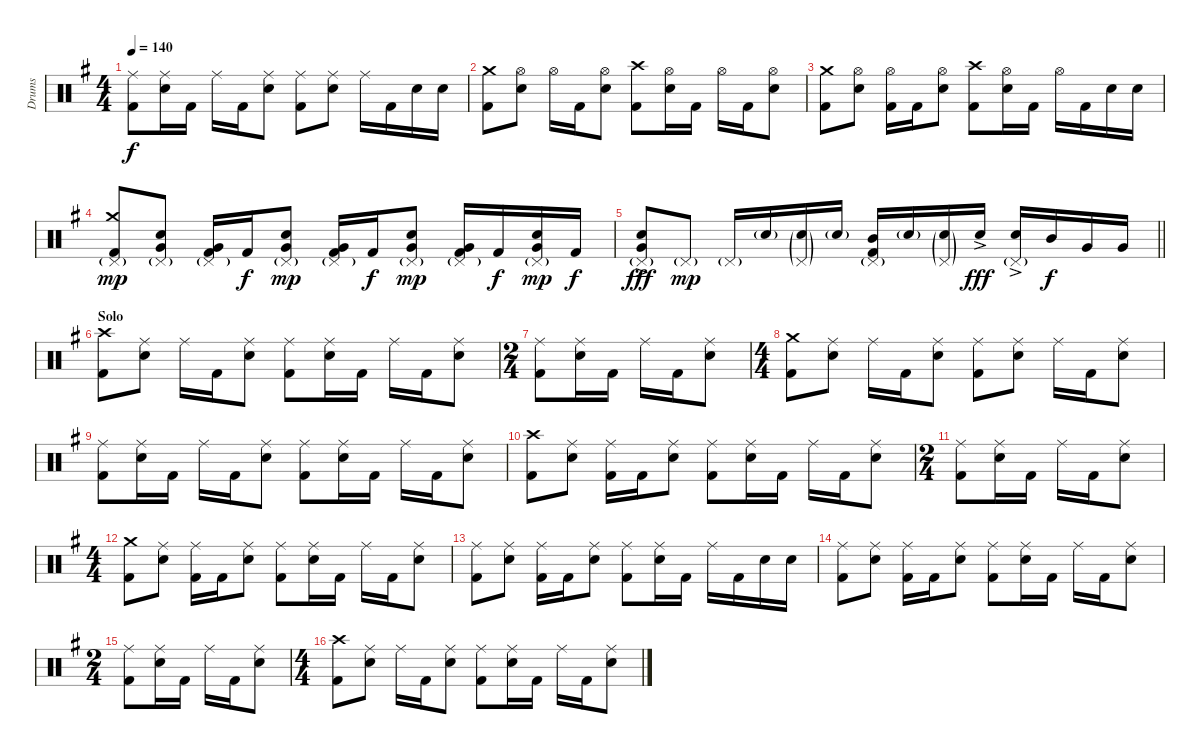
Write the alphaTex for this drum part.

\track ("Drums" "Drums") {instrument percussion}
\staff {score}
\articulation defaults
\ts (4 4)
\tempo 140
\clef neutral
\ks g
("Ride (middle)" "Kick (hit) 2").8{dy f} ("Ride (middle)" "Electric Snare (hit)").16 "Kick (hit) 2".16 "Ride (middle)".16 "Kick (hit) 2".16 ("Ride (middle)" "Electric Snare (hit)").8 ("Ride (middle)" "Kick (hit) 2").8 ("Ride (middle)" "Electric Snare (hit)").8 "Ride (middle)".16 "Kick (hit) 2".16 "Electric Snare (hit)".16 "Electric Snare (hit)".16 |
("Crash medium (hit)" "Kick (hit) 2").8 ("Hi-Hat (open)" "Electric Snare (hit)").8 "Hi-Hat (open)".16 "Kick (hit) 2".16 ("Hi-Hat (open)" "Electric Snare (hit)").8 ("Crash high (hit)" "Kick (hit) 2").8 ("Hi-Hat (open)" "Electric Snare (hit)").16 "Kick (hit) 2".16 "Hi-Hat (open)".16 "Kick (hit) 2".16 ("Hi-Hat (open)" "Electric Snare (hit)").8 |
("Crash medium (hit)" "Kick (hit) 2").8 ("Hi-Hat (open)" "Electric Snare (hit)").8 ("Hi-Hat (open)" "Kick (hit) 2").16 "Kick (hit) 2".16 ("Hi-Hat (open)" "Electric Snare (hit)").8 ("Crash high (hit)" "Kick (hit) 2").8 ("Hi-Hat (open)" "Electric Snare (hit)").16 "Kick (hit) 2".16 "Hi-Hat (open)".16 "Kick (hit) 2".16 "Electric Snare (hit)".16 "Electric Snare (hit)".16 |
("Crash medium (hit)" "Pedal Hi-Hat (hit)"{g} "Kick (hit) 2").8{dy mp} ("Pedal Hi-Hat (hit)"{g} "Electric Snare (hit)" "Very Low Tom (hit)").8 ("Pedal Hi-Hat (hit)"{g} "Very Low Tom (hit)" "Kick (hit) 2").16 "Kick (hit) 2".16{dy f} ("Pedal Hi-Hat (hit)"{g} "Electric Snare (hit)" "Very Low Tom (hit)").8{dy mp} ("Pedal Hi-Hat (hit)"{g} "Very Low Tom (hit)" "Kick (hit) 2").16 "Kick (hit) 2".16{dy f} ("Pedal Hi-Hat (hit)"{g} "Electric Snare (hit)" "Very Low Tom (hit)").8{dy mp} ("Pedal Hi-Hat (hit)"{g} "Very Low Tom (hit)" "Kick (hit) 2").16 "Kick (hit) 2".16{dy f} ("Pedal Hi-Hat (hit)"{g} "Electric Snare (hit)" "Very Low Tom (hit)").16{dy mp} "Kick (hit) 2".16{dy f} |
\barLineRight lightlight
("Pedal Hi-Hat (hit)"{g} "Electric Snare (hit)"{ac} "Very Low Tom (hit)").8{dy fff} "Pedal Hi-Hat (hit)"{g}.8{dy mp} "Pedal Hi-Hat (hit)"{g}.16 "Electric Snare (hit)"{g}.16 ("Pedal Hi-Hat (hit)"{g} "Electric Snare (hit)"{g}).16 "Electric Snare (hit)"{g}.16 ("Pedal Hi-Hat (hit)"{g} "Mid Tom (hit)" "Kick (hit) 2").16 "Electric Snare (hit)"{g}.16 ("Pedal Hi-Hat (hit)"{g} "Electric Snare (hit)"{g}).16 "Electric Snare (hit)"{ac}.16{dy fff} ("Pedal Hi-Hat (hit)"{g} "Electric Snare (hit)"{ac}).16 "Mid Tom (hit)".16{dy f} "Very Low Tom (hit)".16 "Very Low Tom (hit)".16 |
\section ("" "Solo")
("Crash high (hit)" "Kick (hit) 2").8 ("Ride (middle)" "Electric Snare (hit)").8 "Ride (middle)".16 "Kick (hit) 2".16 ("Ride (middle)" "Electric Snare (hit)").8 ("Ride (middle)" "Kick (hit) 2").8 ("Ride (middle)" "Electric Snare (hit)").16 "Kick (hit) 2".16 "Ride (middle)".16 "Kick (hit) 2".16 ("Ride (middle)" "Electric Snare (hit)").8 |
\ts (2 4)
("Ride (middle)" "Kick (hit) 2").8 ("Ride (middle)" "Electric Snare (hit)").16 "Kick (hit) 2".16 "Ride (middle)".16 "Kick (hit) 2".16 ("Ride (middle)" "Electric Snare (hit)").8 |
\ts (4 4)
("Crash medium (hit)" "Kick (hit) 2").8 ("Ride (middle)" "Electric Snare (hit)").8 "Ride (middle)".16 "Kick (hit) 2".16 ("Ride (middle)" "Electric Snare (hit)").8 ("Ride (middle)" "Kick (hit) 2").8 ("Ride (middle)" "Electric Snare (hit)").8 "Ride (middle)".16 "Kick (hit) 2".16 ("Ride (middle)" "Electric Snare (hit)").8 |
("Ride (middle)" "Kick (hit) 2").8 ("Ride (middle)" "Electric Snare (hit)").16 "Kick (hit) 2".16 "Ride (middle)".16 "Kick (hit) 2".16 ("Ride (middle)" "Electric Snare (hit)").8 ("Ride (middle)" "Kick (hit) 2").8 ("Ride (middle)" "Electric Snare (hit)").16 "Kick (hit) 2".16 "Ride (middle)".16 "Kick (hit) 2".16 ("Ride (middle)" "Electric Snare (hit)").8 |
("Crash high (hit)" "Kick (hit) 2").8 ("Ride (middle)" "Electric Snare (hit)").8 ("Ride (middle)" "Kick (hit) 2").16 "Kick (hit) 2".16 ("Ride (middle)" "Electric Snare (hit)").8 ("Ride (middle)" "Kick (hit) 2").8 ("Ride (middle)" "Electric Snare (hit)").16 "Kick (hit) 2".16 "Ride (middle)".16 "Kick (hit) 2".16 ("Ride (middle)" "Electric Snare (hit)").8 |
\ts (2 4)
("Ride (middle)" "Kick (hit) 2").8 ("Ride (middle)" "Electric Snare (hit)").16 "Kick (hit) 2".16 "Ride (middle)".16 "Kick (hit) 2".16 ("Ride (middle)" "Electric Snare (hit)").8 |
\ts (4 4)
("Crash medium (hit)" "Kick (hit) 2").8 ("Ride (middle)" "Electric Snare (hit)").8 ("Ride (middle)" "Kick (hit) 2").16 "Kick (hit) 2".16 ("Ride (middle)" "Electric Snare (hit)").8 ("Ride (middle)" "Kick (hit) 2").8 ("Ride (middle)" "Electric Snare (hit)").16 "Kick (hit) 2".16 "Ride (middle)".16 "Kick (hit) 2".16 ("Ride (middle)" "Electric Snare (hit)").8 |
("Ride (middle)" "Kick (hit) 2").8 ("Ride (middle)" "Electric Snare (hit)").8 ("Ride (middle)" "Kick (hit) 2").16 "Kick (hit) 2".16 ("Ride (middle)" "Electric Snare (hit)").8 ("Ride (middle)" "Kick (hit) 2").8 ("Ride (middle)" "Electric Snare (hit)").16 "Kick (hit) 2".16 "Ride (middle)".16 "Kick (hit) 2".16 "Electric Snare (hit)".16 "Electric Snare (hit)".16 |
("Ride (middle)" "Kick (hit) 2").8 ("Ride (middle)" "Electric Snare (hit)").8 ("Ride (middle)" "Kick (hit) 2").16 "Kick (hit) 2".16 ("Ride (middle)" "Electric Snare (hit)").8 ("Ride (middle)" "Kick (hit) 2").8 ("Ride (middle)" "Electric Snare (hit)").16 "Kick (hit) 2".16 "Ride (middle)".16 "Kick (hit) 2".16 ("Ride (middle)" "Electric Snare (hit)").8 |
\ts (2 4)
("Ride (middle)" "Kick (hit) 2").8 ("Ride (middle)" "Electric Snare (hit)").16 "Kick (hit) 2".16 "Ride (middle)".16 "Kick (hit) 2".16 ("Ride (middle)" "Electric Snare (hit)").8 |
\ts (4 4)
("Crash high (hit)" "Kick (hit) 2").8 ("Ride (middle)" "Electric Snare (hit)").8 "Ride (middle)".16 "Kick (hit) 2".16 ("Ride (middle)" "Electric Snare (hit)").8 ("Ride (middle)" "Kick (hit) 2").8 ("Ride (middle)" "Electric Snare (hit)").16 "Kick (hit) 2".16 "Ride (middle)".16 "Kick (hit) 2".16 ("Ride (middle)" "Electric Snare (hit)").8
